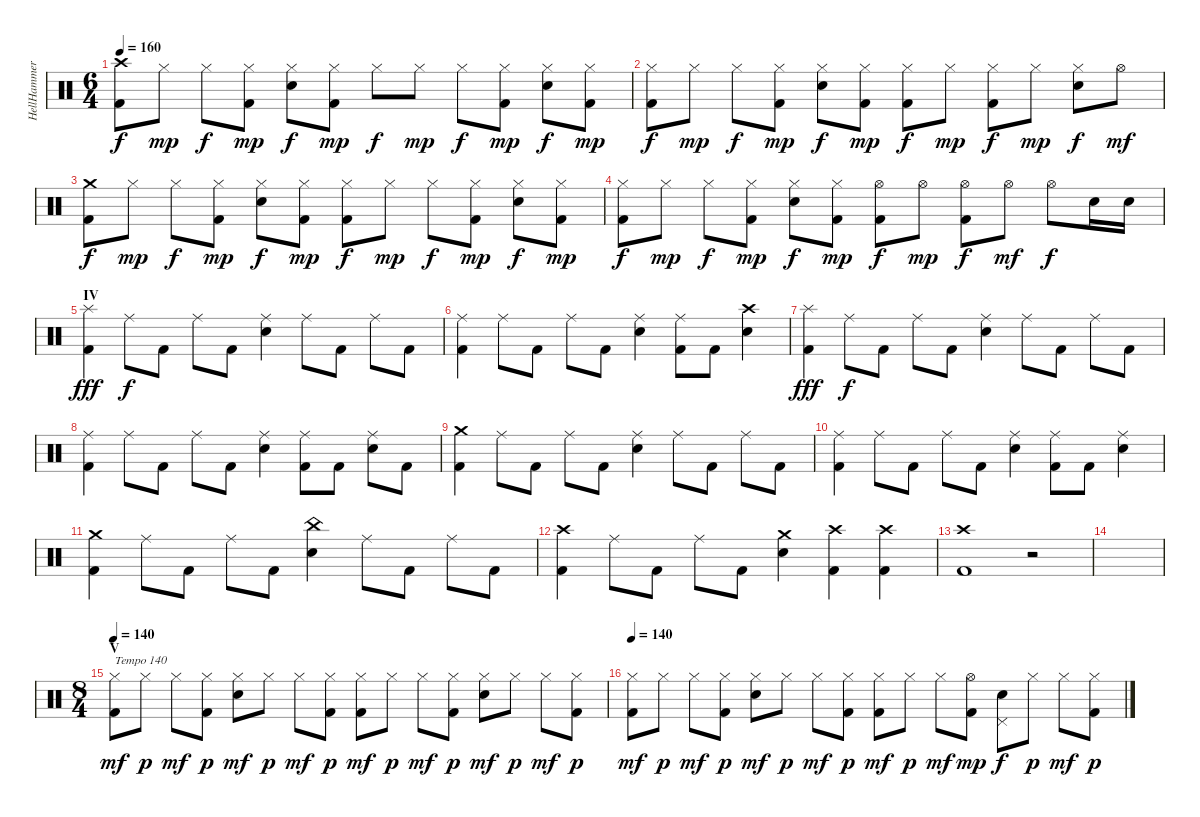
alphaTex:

\track ("HellHammer" "HellHammer") {instrument percussion}
\staff {score}
\articulation defaults
\ts (6 4)
\tempo 160
\clef neutral
\ks c
("Kick (hit) 2" "Crash high (hit)").8{dy f} "Hi-Hat (closed)".8{dy mp} "Hi-Hat (closed)".8{dy f} ("Kick (hit) 2" "Hi-Hat (closed)").8{dy mp} ("Electric Snare (hit)" "Hi-Hat (closed)").8{dy f} ("Kick (hit) 2" "Hi-Hat (closed)").8{dy mp} "Hi-Hat (closed)".8{dy f} "Hi-Hat (closed)".8{dy mp} "Hi-Hat (closed)".8{dy f} ("Kick (hit) 2" "Hi-Hat (closed)").8{dy mp} ("Electric Snare (hit)" "Hi-Hat (closed)").8{dy f} ("Kick (hit) 2" "Hi-Hat (closed)").8{dy mp} |
("Kick (hit) 2" "Hi-Hat (closed)").8{dy f} "Hi-Hat (closed)".8{dy mp} "Hi-Hat (closed)".8{dy f} ("Kick (hit) 2" "Hi-Hat (closed)").8{dy mp} ("Electric Snare (hit)" "Hi-Hat (closed)").8{dy f} ("Kick (hit) 2" "Hi-Hat (closed)").8{dy mp} ("Kick (hit) 2" "Hi-Hat (closed)").8{dy f} "Hi-Hat (closed)".8{dy mp} ("Kick (hit) 2" "Hi-Hat (closed)").8{dy f} "Hi-Hat (closed)".8{dy mp} ("Electric Snare (hit)" "Hi-Hat (closed)").8{dy f} "Hi-Hat (open)".8{dy mf} |
("Kick (hit) 2" "Crash medium (hit)").8{dy f} "Hi-Hat (closed)".8{dy mp} "Hi-Hat (closed)".8{dy f} ("Kick (hit) 2" "Hi-Hat (closed)").8{dy mp} ("Electric Snare (hit)" "Hi-Hat (closed)").8{dy f} ("Kick (hit) 2" "Hi-Hat (closed)").8{dy mp} ("Kick (hit) 2" "Hi-Hat (closed)").8{dy f} "Hi-Hat (closed)".8{dy mp} "Hi-Hat (closed)".8{dy f} ("Kick (hit) 2" "Hi-Hat (closed)").8{dy mp} ("Electric Snare (hit)" "Hi-Hat (closed)").8{dy f} ("Kick (hit) 2" "Hi-Hat (closed)").8{dy mp} |
("Kick (hit) 2" "Hi-Hat (closed)").8{dy f} "Hi-Hat (closed)".8{dy mp} "Hi-Hat (closed)".8{dy f} ("Kick (hit) 2" "Hi-Hat (closed)").8{dy mp} ("Electric Snare (hit)" "Hi-Hat (closed)").8{dy f} ("Kick (hit) 2" "Hi-Hat (closed)").8{dy mp} ("Kick (hit) 2" "Hi-Hat (open)").8{dy f} "Hi-Hat (open)".8{dy mp} ("Kick (hit) 2" "Hi-Hat (open)").8{dy f} "Hi-Hat (open)".8{dy mf} "Hi-Hat (open)".8{dy f} "Electric Snare (hit)".16 "Electric Snare (hit)".16 |
\section ("" "IV")
("Kick (hit) 2" "Splash (hit)").4{dy fff} "Ride (middle)".8{dy f} "Kick (hit) 2".8 "Ride (middle)".8 "Kick (hit) 2".8 ("Electric Snare (hit)" "Ride (middle)").4 "Ride (middle)".8 "Kick (hit) 2".8 "Ride (middle)".8 "Kick (hit) 2".8 |
("Kick (hit) 2" "Ride (middle)").4 "Ride (middle)".8 "Kick (hit) 2".8 "Ride (middle)".8 "Kick (hit) 2".8 ("Electric Snare (hit)" "Ride (middle)").4 ("Kick (hit) 2" "Ride (middle)").8 "Kick (hit) 2".8 ("Electric Snare (hit)" "Crash high (hit)").4 |
("Kick (hit) 2" "Splash (hit)").4{dy fff} "Ride (middle)".8{dy f} "Kick (hit) 2".8 "Ride (middle)".8 "Kick (hit) 2".8 ("Electric Snare (hit)" "Ride (middle)").4 "Ride (middle)".8 "Kick (hit) 2".8 "Ride (middle)".8 "Kick (hit) 2".8 |
("Kick (hit) 2" "Ride (middle)").4 "Ride (middle)".8 "Kick (hit) 2".8 "Ride (middle)".8 "Kick (hit) 2".8 ("Electric Snare (hit)" "Ride (middle)").4 ("Kick (hit) 2" "Ride (middle)").8 "Kick (hit) 2".8 ("Electric Snare (hit)" "Ride (middle)").8 "Kick (hit) 2".8 |
("Kick (hit) 2" "Crash medium (hit)").4 "Ride (middle)".8 "Kick (hit) 2".8 "Ride (middle)".8 "Kick (hit) 2".8 ("Electric Snare (hit)" "Ride (middle)").4 "Ride (middle)".8 "Kick (hit) 2".8 "Ride (middle)".8 "Kick (hit) 2".8 |
("Kick (hit) 2" "Ride (middle)").4 "Ride (middle)".8 "Kick (hit) 2".8 "Ride (middle)".8 "Kick (hit) 2".8 ("Electric Snare (hit)" "Ride (middle)").4 ("Kick (hit) 2" "Ride (middle)").8 "Kick (hit) 2".8 ("Electric Snare (hit)" "Ride (middle)").4 |
("Kick (hit) 2" "Crash medium (hit)").4 "Ride (middle)".8 "Kick (hit) 2".8 "Ride (middle)".8 "Kick (hit) 2".8 ("Electric Snare (hit)" "China (hit)").4 "Ride (middle)".8 "Kick (hit) 2".8 "Ride (middle)".8 "Kick (hit) 2".8 |
("Kick (hit) 2" "Crash high (hit)").4 "Ride (middle)".8 "Kick (hit) 2".8 "Ride (middle)".8 "Kick (hit) 2".8 ("Electric Snare (hit)" "Crash medium (hit)").4 ("Kick (hit) 2" "Crash high (hit)").4 ("Kick (hit) 2" "Crash high (hit)").4 |
("Kick (hit) 2" "Crash high (hit)").1 r.2 |
|
\ts (8 4)
\section ("" "V")
\tempo 140
("Kick (hit) 2" "Hi-Hat (closed)").8{txt "Tempo 140" dy mf} "Hi-Hat (closed)".8{dy p} "Hi-Hat (closed)".8{dy mf} ("Kick (hit) 2" "Hi-Hat (closed)").8{dy p} ("Electric Snare (hit)" "Hi-Hat (closed)").8{dy mf} "Hi-Hat (closed)".8{dy p} "Hi-Hat (closed)".8{dy mf} ("Kick (hit) 2" "Hi-Hat (closed)").8{dy p} ("Kick (hit) 2" "Hi-Hat (closed)").8{dy mf} "Hi-Hat (closed)".8{dy p} "Hi-Hat (closed)".8{dy mf} ("Kick (hit) 2" "Hi-Hat (closed)").8{dy p} ("Electric Snare (hit)" "Hi-Hat (closed)").8{dy mf} "Hi-Hat (closed)".8{dy p} "Hi-Hat (closed)".8{dy mf} ("Kick (hit) 2" "Hi-Hat (closed)").8{dy p} |
\tempo 140
("Kick (hit) 2" "Hi-Hat (closed)").8{dy mf} "Hi-Hat (closed)".8{dy p} "Hi-Hat (closed)".8{dy mf} ("Kick (hit) 2" "Hi-Hat (closed)").8{dy p} ("Electric Snare (hit)" "Hi-Hat (closed)").8{dy mf} "Hi-Hat (closed)".8{dy p} "Hi-Hat (closed)".8{dy mf} ("Kick (hit) 2" "Hi-Hat (closed)").8{dy p} ("Kick (hit) 2" "Hi-Hat (closed)").8{dy mf} "Hi-Hat (closed)".8{dy p} "Hi-Hat (closed)".8{dy mf} ("Kick (hit) 2" "Hi-Hat (open)").8{dy mp} ("Electric Snare (hit)" "Pedal Hi-Hat (hit)").8{dy f} "Hi-Hat (closed)".8{dy p} "Hi-Hat (closed)".8{dy mf} ("Kick (hit) 2" "Hi-Hat (closed)").8{dy p}
